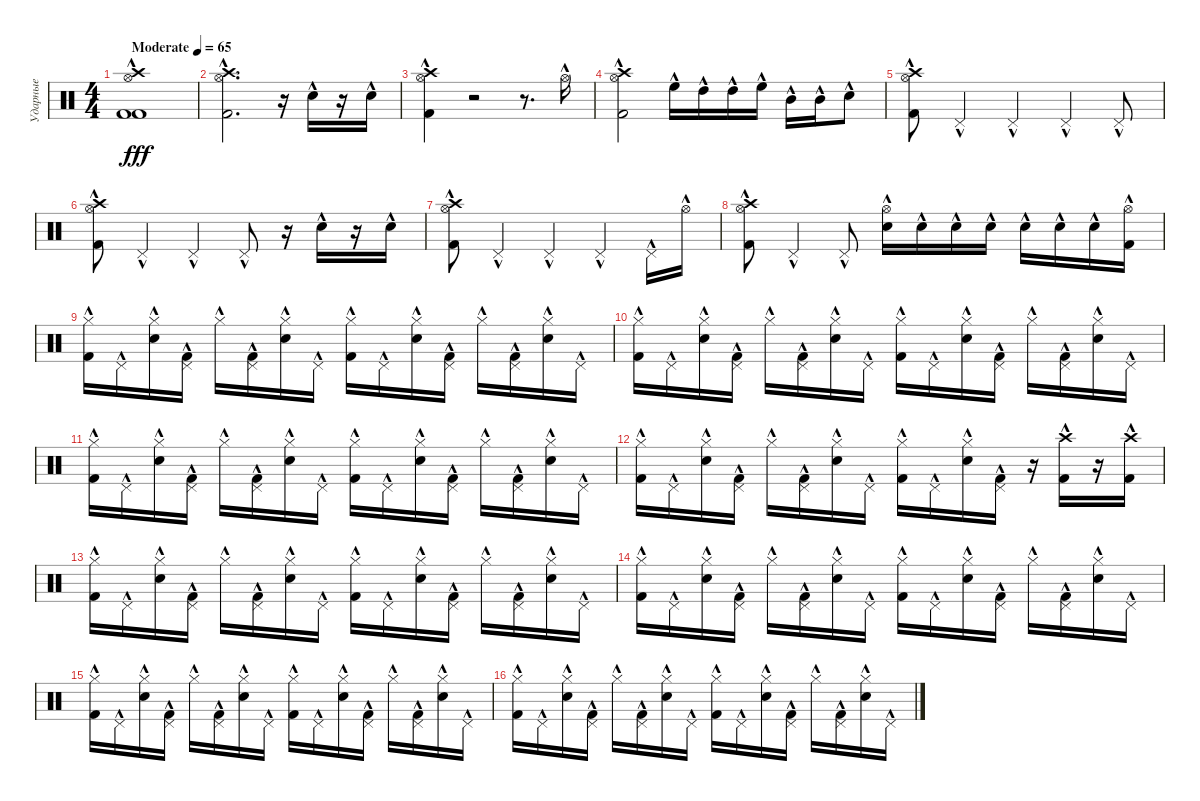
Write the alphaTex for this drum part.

\track ("Ударные" "Ударные") {instrument percussion}
\staff {score}
\articulation defaults
\ts (4 4)
\tempo (65 "Moderate")
\clef neutral
\ks c
("Hi-Hat (open)"{hac} "Crash high (hit)"{hac} "Kick (hit) 2"{hac} "Kick (hit) 2"{hac}).1{dy fff} |
("Hi-Hat (open)"{hac} "Crash high (hit)"{hac} "Kick (hit) 2"{hac}).2{d} r.16 "Electric Snare (hit)"{hac}.16 r.16 "Electric Snare (hit)"{hac}.16 |
("Hi-Hat (open)"{hac} "Crash high (hit)"{hac} "Kick (hit) 2"{hac}).4 r.2 r.8{d} "Hi-Hat (open)"{hac}.16 |
("Hi-Hat (open)"{hac} "Crash high (hit)"{hac} "Kick (hit) 2"{hac}).2 "High Floor Tom (hit)"{hac}.16 "High Tom (hit)"{hac}.16 "High Tom (hit)"{hac}.16 "High Floor Tom (hit)"{hac}.16 "Mid Tom (hit)"{hac}.16 "Mid Tom (hit)"{hac}.16 "Snare (hit) 2"{hac}.8 |
("Hi-Hat (open)"{hac} "Crash high (hit)"{hac} "Kick (hit) 2").8 "Pedal Hi-Hat (hit)"{hac}.4 "Pedal Hi-Hat (hit)"{hac}.4 "Pedal Hi-Hat (hit)"{hac}.4 "Pedal Hi-Hat (hit)"{hac}.8 |
("Kick (hit) 2"{hac} "Hi-Hat (open)"{hac} "Crash high (hit)"{hac}).8 "Pedal Hi-Hat (hit)"{hac}.4 "Pedal Hi-Hat (hit)"{hac}.4 "Pedal Hi-Hat (hit)"{hac}.8 r.16 "Electric Snare (hit)"{hac}.16 r.16 "Electric Snare (hit)"{hac}.16 |
("Hi-Hat (open)"{hac} "Crash high (hit)"{hac} "Kick (hit) 2"{hac}).8 "Pedal Hi-Hat (hit)"{hac}.4 "Pedal Hi-Hat (hit)"{hac}.4 "Pedal Hi-Hat (hit)"{hac}.4 "Pedal Hi-Hat (hit)"{hac}.16 "Hi-Hat (open)"{hac}.16 |
("Hi-Hat (open)"{hac} "Crash high (hit)"{hac} "Kick (hit) 2"{hac}).8 "Pedal Hi-Hat (hit)"{hac}.4 "Pedal Hi-Hat (hit)"{hac}.8 ("Electric Snare (hit)"{hac} "Hi-Hat (open)"{hac}).16 "Electric Snare (hit)"{hac}.16 "Electric Snare (hit)"{hac}.16 "Electric Snare (hit)"{hac}.16 "Electric Snare (hit)"{hac}.16 "Electric Snare (hit)"{hac}.16 "Electric Snare (hit)"{hac}.16 ("Kick (hit) 2"{hac} "Hi-Hat (open)"{hac}).16 |
("Hi-Hat (closed)"{hac} "Kick (hit) 2"{hac}).16 "Pedal Hi-Hat (hit)"{hac}.16 ("Hi-Hat (closed)"{hac} "Electric Snare (hit)"{hac}).16 ("Pedal Hi-Hat (hit)"{hac} "Kick (hit) 2"{hac}).16 "Hi-Hat (closed)"{hac}.16 ("Pedal Hi-Hat (hit)"{hac} "Kick (hit) 2"{hac}).16 ("Hi-Hat (closed)"{hac} "Electric Snare (hit)"{hac}).16 "Pedal Hi-Hat (hit)"{hac}.16 ("Hi-Hat (closed)"{hac} "Kick (hit) 2"{hac}).16 "Pedal Hi-Hat (hit)"{hac}.16 ("Hi-Hat (closed)"{hac} "Electric Snare (hit)"{hac}).16 ("Pedal Hi-Hat (hit)"{hac} "Kick (hit) 2"{hac}).16 "Hi-Hat (closed)"{hac}.16 ("Pedal Hi-Hat (hit)"{hac} "Kick (hit) 2"{hac}).16 ("Hi-Hat (closed)"{hac} "Electric Snare (hit)"{hac}).16 "Pedal Hi-Hat (hit)"{hac}.16 |
("Hi-Hat (closed)"{hac} "Kick (hit) 2"{hac}).16 "Pedal Hi-Hat (hit)"{hac}.16 ("Hi-Hat (closed)"{hac} "Electric Snare (hit)"{hac}).16 ("Pedal Hi-Hat (hit)"{hac} "Kick (hit) 2"{hac}).16 "Hi-Hat (closed)"{hac}.16 ("Pedal Hi-Hat (hit)"{hac} "Kick (hit) 2"{hac}).16 ("Hi-Hat (closed)"{hac} "Electric Snare (hit)"{hac}).16 "Pedal Hi-Hat (hit)"{hac}.16 ("Hi-Hat (closed)"{hac} "Kick (hit) 2"{hac}).16 "Pedal Hi-Hat (hit)"{hac}.16 ("Hi-Hat (closed)"{hac} "Electric Snare (hit)"{hac}).16 ("Pedal Hi-Hat (hit)"{hac} "Kick (hit) 2"{hac}).16 "Hi-Hat (closed)"{hac}.16 ("Pedal Hi-Hat (hit)"{hac} "Kick (hit) 2"{hac}).16 ("Hi-Hat (closed)"{hac} "Electric Snare (hit)"{hac}).16 "Pedal Hi-Hat (hit)"{hac}.16 |
("Hi-Hat (closed)"{hac} "Kick (hit) 2"{hac}).16 "Pedal Hi-Hat (hit)"{hac}.16 ("Hi-Hat (closed)"{hac} "Electric Snare (hit)"{hac}).16 ("Pedal Hi-Hat (hit)"{hac} "Kick (hit) 2"{hac}).16 "Hi-Hat (closed)"{hac}.16 ("Pedal Hi-Hat (hit)"{hac} "Kick (hit) 2"{hac}).16 ("Hi-Hat (closed)"{hac} "Electric Snare (hit)"{hac}).16 "Pedal Hi-Hat (hit)"{hac}.16 ("Hi-Hat (closed)"{hac} "Kick (hit) 2"{hac}).16 "Pedal Hi-Hat (hit)"{hac}.16 ("Hi-Hat (closed)"{hac} "Electric Snare (hit)"{hac}).16 ("Pedal Hi-Hat (hit)"{hac} "Kick (hit) 2"{hac}).16 "Hi-Hat (closed)"{hac}.16 ("Pedal Hi-Hat (hit)"{hac} "Kick (hit) 2"{hac}).16 ("Hi-Hat (closed)"{hac} "Electric Snare (hit)"{hac}).16 "Pedal Hi-Hat (hit)"{hac}.16 |
("Hi-Hat (closed)"{hac} "Kick (hit) 2"{hac}).16 "Pedal Hi-Hat (hit)"{hac}.16 ("Hi-Hat (closed)"{hac} "Electric Snare (hit)"{hac}).16 ("Pedal Hi-Hat (hit)"{hac} "Kick (hit) 2"{hac}).16 "Hi-Hat (closed)"{hac}.16 ("Pedal Hi-Hat (hit)"{hac} "Kick (hit) 2"{hac}).16 ("Hi-Hat (closed)"{hac} "Electric Snare (hit)"{hac}).16 "Pedal Hi-Hat (hit)"{hac}.16 ("Hi-Hat (closed)"{hac} "Kick (hit) 2"{hac}).16 "Pedal Hi-Hat (hit)"{hac}.16 ("Hi-Hat (closed)"{hac} "Electric Snare (hit)"{hac}).16 ("Pedal Hi-Hat (hit)"{hac} "Kick (hit) 2"{hac}).16 r.16 ("Kick (hit) 2"{hac} "Crash high (hit)"{hac}).16 r.16 ("Kick (hit) 2"{hac} "Crash high (hit)"{hac}).16 |
("Hi-Hat (closed)"{hac} "Kick (hit) 2"{hac}).16 "Pedal Hi-Hat (hit)"{hac}.16 ("Hi-Hat (closed)"{hac} "Electric Snare (hit)"{hac}).16 ("Pedal Hi-Hat (hit)"{hac} "Kick (hit) 2"{hac}).16 "Hi-Hat (closed)"{hac}.16 ("Pedal Hi-Hat (hit)"{hac} "Kick (hit) 2"{hac}).16 ("Hi-Hat (closed)"{hac} "Electric Snare (hit)"{hac}).16 "Pedal Hi-Hat (hit)"{hac}.16 ("Hi-Hat (closed)"{hac} "Kick (hit) 2"{hac}).16 "Pedal Hi-Hat (hit)"{hac}.16 ("Hi-Hat (closed)"{hac} "Electric Snare (hit)"{hac}).16 ("Pedal Hi-Hat (hit)"{hac} "Kick (hit) 2"{hac}).16 "Hi-Hat (closed)"{hac}.16 ("Pedal Hi-Hat (hit)"{hac} "Kick (hit) 2"{hac}).16 ("Hi-Hat (closed)"{hac} "Electric Snare (hit)"{hac}).16 "Pedal Hi-Hat (hit)"{hac}.16 |
("Hi-Hat (closed)"{hac} "Kick (hit) 2"{hac}).16 "Pedal Hi-Hat (hit)"{hac}.16 ("Hi-Hat (closed)"{hac} "Electric Snare (hit)"{hac}).16 ("Pedal Hi-Hat (hit)"{hac} "Kick (hit) 2"{hac}).16 "Hi-Hat (closed)"{hac}.16 ("Pedal Hi-Hat (hit)"{hac} "Kick (hit) 2"{hac}).16 ("Hi-Hat (closed)"{hac} "Electric Snare (hit)"{hac}).16 "Pedal Hi-Hat (hit)"{hac}.16 ("Hi-Hat (closed)"{hac} "Kick (hit) 2"{hac}).16 "Pedal Hi-Hat (hit)"{hac}.16 ("Hi-Hat (closed)"{hac} "Electric Snare (hit)"{hac}).16 ("Pedal Hi-Hat (hit)"{hac} "Kick (hit) 2"{hac}).16 "Hi-Hat (closed)"{hac}.16 ("Pedal Hi-Hat (hit)"{hac} "Kick (hit) 2"{hac}).16 ("Hi-Hat (closed)"{hac} "Electric Snare (hit)"{hac}).16 "Pedal Hi-Hat (hit)"{hac}.16 |
("Hi-Hat (closed)"{hac} "Kick (hit) 2"{hac}).16 "Pedal Hi-Hat (hit)"{hac}.16 ("Hi-Hat (closed)"{hac} "Electric Snare (hit)"{hac}).16 ("Pedal Hi-Hat (hit)"{hac} "Kick (hit) 2"{hac}).16 "Hi-Hat (closed)"{hac}.16 ("Pedal Hi-Hat (hit)"{hac} "Kick (hit) 2"{hac}).16 ("Hi-Hat (closed)"{hac} "Electric Snare (hit)"{hac}).16 "Pedal Hi-Hat (hit)"{hac}.16 ("Hi-Hat (closed)"{hac} "Kick (hit) 2"{hac}).16 "Pedal Hi-Hat (hit)"{hac}.16 ("Hi-Hat (closed)"{hac} "Electric Snare (hit)"{hac}).16 ("Pedal Hi-Hat (hit)"{hac} "Kick (hit) 2"{hac}).16 "Hi-Hat (closed)"{hac}.16 ("Pedal Hi-Hat (hit)"{hac} "Kick (hit) 2"{hac}).16 ("Hi-Hat (closed)"{hac} "Electric Snare (hit)"{hac}).16 "Pedal Hi-Hat (hit)"{hac}.16 |
("Hi-Hat (closed)"{hac} "Kick (hit) 2"{hac}).16 "Pedal Hi-Hat (hit)"{hac}.16 ("Hi-Hat (closed)"{hac} "Electric Snare (hit)"{hac}).16 ("Pedal Hi-Hat (hit)"{hac} "Kick (hit) 2"{hac}).16 "Hi-Hat (closed)"{hac}.16 ("Pedal Hi-Hat (hit)"{hac} "Kick (hit) 2"{hac}).16 ("Hi-Hat (closed)"{hac} "Electric Snare (hit)"{hac}).16 "Pedal Hi-Hat (hit)"{hac}.16 ("Hi-Hat (closed)"{hac} "Kick (hit) 2"{hac}).16 "Pedal Hi-Hat (hit)"{hac}.16 ("Hi-Hat (closed)"{hac} "Electric Snare (hit)"{hac}).16 ("Pedal Hi-Hat (hit)"{hac} "Kick (hit) 2"{hac}).16 "Hi-Hat (closed)"{hac}.16 ("Pedal Hi-Hat (hit)"{hac} "Kick (hit) 2"{hac}).16 ("Hi-Hat (closed)"{hac} "Electric Snare (hit)"{hac}).16 "Pedal Hi-Hat (hit)"{hac}.16
